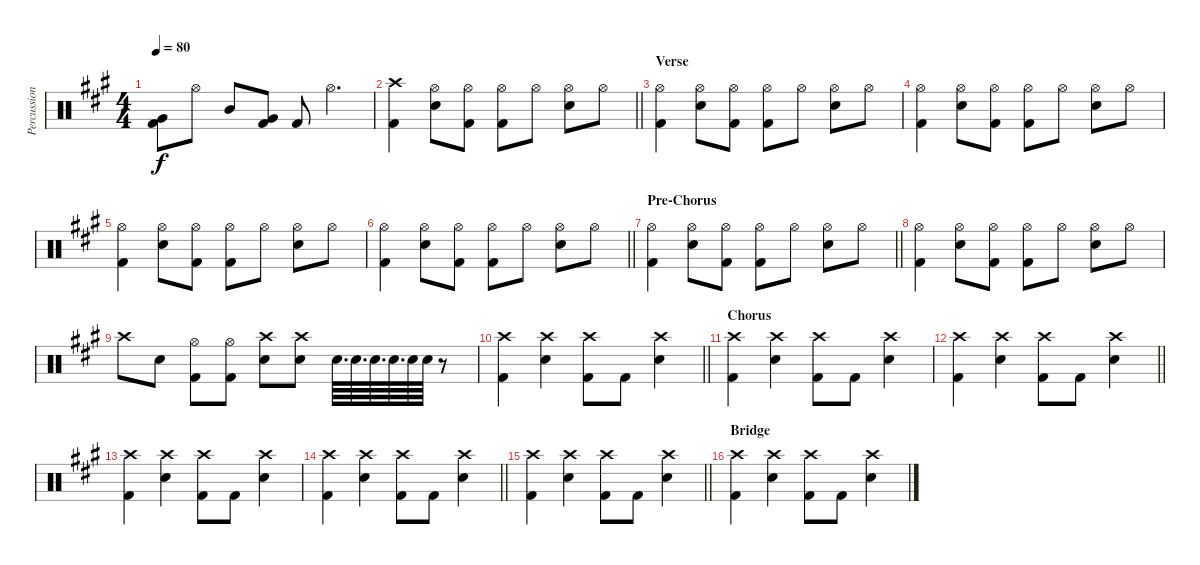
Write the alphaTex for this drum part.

\track ("Percussion" "Percussion") {instrument percussion}
\staff {score}
\articulation defaults
\ts (4 4)
\tempo 80
\clef neutral
\ks a
("Very Low Tom (hit)" "Kick (hit) 2").8{dy f} "Hi-Hat (open)".8 "Mid Tom (hit)".8 ("Very Low Tom (hit)" "Kick (hit) 2").8 "Kick (hit) 2".8 "Hi-Hat (open)".4{d} |
\barLineRight lightlight
("Crash high (hit)" "Kick (hit) 2").4 ("Hi-Hat (open)" "Snare (hit) 2").8 ("Hi-Hat (open)" "Kick (hit) 2").8 ("Hi-Hat (open)" "Kick (hit) 2").8 "Hi-Hat (open)".8 ("Hi-Hat (open)" "Snare (hit) 2").8 "Hi-Hat (open)".8 |
\section ("" "Verse")
("Hi-Hat (open)" "Kick (hit) 2").4 ("Hi-Hat (open)" "Snare (hit) 2").8 ("Hi-Hat (open)" "Kick (hit) 2").8 ("Hi-Hat (open)" "Kick (hit) 2").8 "Hi-Hat (open)".8 ("Hi-Hat (open)" "Snare (hit) 2").8 "Hi-Hat (open)".8 |
("Hi-Hat (open)" "Kick (hit) 2").4 ("Hi-Hat (open)" "Snare (hit) 2").8 ("Hi-Hat (open)" "Kick (hit) 2").8 ("Hi-Hat (open)" "Kick (hit) 2").8 "Hi-Hat (open)".8 ("Hi-Hat (open)" "Snare (hit) 2").8 "Hi-Hat (open)".8 |
("Hi-Hat (open)" "Kick (hit) 2").4 ("Hi-Hat (open)" "Snare (hit) 2").8 ("Hi-Hat (open)" "Kick (hit) 2").8 ("Hi-Hat (open)" "Kick (hit) 2").8 "Hi-Hat (open)".8 ("Hi-Hat (open)" "Snare (hit) 2").8 "Hi-Hat (open)".8 |
\barLineRight lightlight
("Hi-Hat (open)" "Kick (hit) 2").4 ("Hi-Hat (open)" "Snare (hit) 2").8 ("Hi-Hat (open)" "Kick (hit) 2").8 ("Hi-Hat (open)" "Kick (hit) 2").8 "Hi-Hat (open)".8 ("Hi-Hat (open)" "Snare (hit) 2").8 "Hi-Hat (open)".8 |
\section ("" "Pre-Chorus")
\barLineRight lightlight
("Hi-Hat (open)" "Kick (hit) 2").4 ("Hi-Hat (open)" "Snare (hit) 2").8 ("Hi-Hat (open)" "Kick (hit) 2").8 ("Hi-Hat (open)" "Kick (hit) 2").8 "Hi-Hat (open)".8 ("Hi-Hat (open)" "Snare (hit) 2").8 "Hi-Hat (open)".8 |
("Hi-Hat (open)" "Kick (hit) 2").4 ("Hi-Hat (open)" "Snare (hit) 2").8 ("Hi-Hat (open)" "Kick (hit) 2").8 ("Hi-Hat (open)" "Kick (hit) 2").8 "Hi-Hat (open)".8 ("Hi-Hat (open)" "Snare (hit) 2").8 "Hi-Hat (open)".8 |
"Crash high (hit)".8 "Snare (hit) 2".8 ("Hi-Hat (open)" "Kick (hit) 2").8 ("Hi-Hat (open)" "Kick (hit) 2").8 ("Crash high (hit)" "Snare (hit) 2").8 ("Crash high (hit)" "Snare (hit) 2").8 "Snare (hit) 2".64{d} "Snare (hit) 2".64{d} "Snare (hit) 2".64{d} "Snare (hit) 2".64{d} "Snare (hit) 2".64 "Snare (hit) 2".64 r.8 |
\barLineRight lightlight
("Crash high (hit)" "Kick (hit) 2").4 ("Crash high (hit)" "Snare (hit) 2").4 ("Crash high (hit)" "Kick (hit) 2").8 "Kick (hit) 2".8 ("Crash high (hit)" "Snare (hit) 2").4 |
\section ("" "Chorus")
("Crash high (hit)" "Kick (hit) 2").4 ("Crash high (hit)" "Snare (hit) 2").4 ("Crash high (hit)" "Kick (hit) 2").8 "Kick (hit) 2".8 ("Crash high (hit)" "Snare (hit) 2").4 |
\barLineRight lightlight
("Crash high (hit)" "Kick (hit) 2").4 ("Crash high (hit)" "Snare (hit) 2").4 ("Crash high (hit)" "Kick (hit) 2").8 "Kick (hit) 2".8 ("Crash high (hit)" "Snare (hit) 2").4 |
("Crash high (hit)" "Kick (hit) 2").4 ("Crash high (hit)" "Snare (hit) 2").4 ("Crash high (hit)" "Kick (hit) 2").8 "Kick (hit) 2".8 ("Crash high (hit)" "Snare (hit) 2").4 |
\barLineRight lightlight
("Crash high (hit)" "Kick (hit) 2").4 ("Crash high (hit)" "Snare (hit) 2").4 ("Crash high (hit)" "Kick (hit) 2").8 "Kick (hit) 2".8 ("Crash high (hit)" "Snare (hit) 2").4 |
\barLineRight lightlight
("Crash high (hit)" "Kick (hit) 2").4 ("Crash high (hit)" "Snare (hit) 2").4 ("Crash high (hit)" "Kick (hit) 2").8 "Kick (hit) 2".8 ("Crash high (hit)" "Snare (hit) 2").4 |
\section ("" "Bridge")
("Crash high (hit)" "Kick (hit) 2").4 ("Crash high (hit)" "Snare (hit) 2").4 ("Crash high (hit)" "Kick (hit) 2").8 "Kick (hit) 2".8 ("Crash high (hit)" "Snare (hit) 2").4
